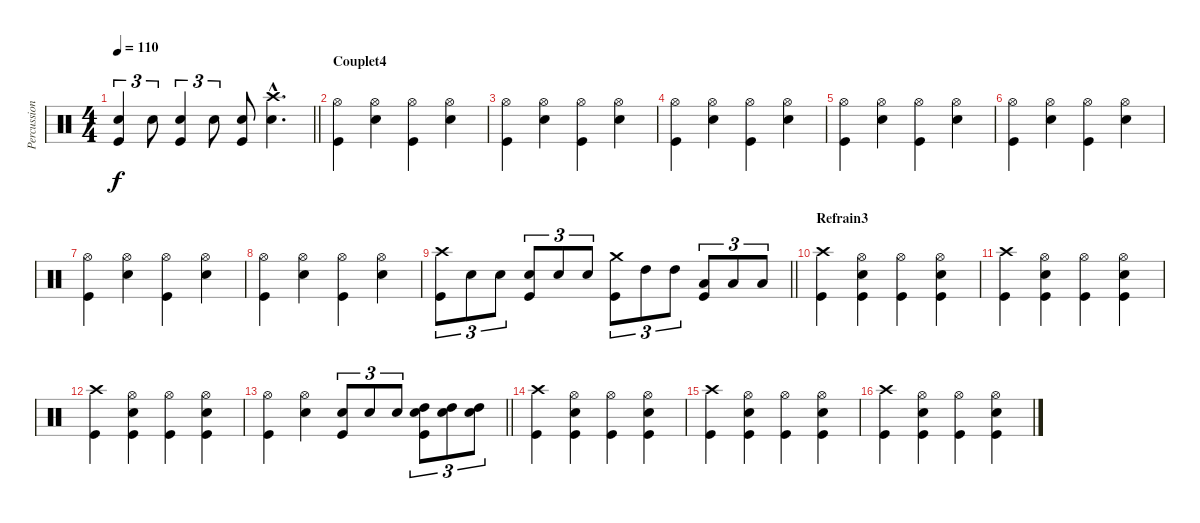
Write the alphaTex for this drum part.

\track ("Percussions" "Percussion") {instrument percussion}
\staff {score}
\articulation defaults
\ts (4 4)
\tempo 110
\clef neutral
\barLineRight lightlight
\ks c
("Snare (hit) 2" "Kick (hit)").4{tu (3 2) dy f} "Snare (hit) 2".8{tu (3 2)} ("Snare (hit) 2" "Kick (hit)").4{tu (3 2)} "Snare (hit) 2".8{tu (3 2)} ("Snare (hit) 2" "Kick (hit)").8 ("Crash high (hit)"{hac} "Snare (hit) 2"{hac}).4{d} |
\section ("" "Couplet4")
("Hi-Hat (open)" "Kick (hit)").4 ("Hi-Hat (open)" "Snare (hit) 2").4 ("Hi-Hat (open)" "Kick (hit)").4 ("Hi-Hat (open)" "Snare (hit) 2").4 |
("Hi-Hat (open)" "Kick (hit)").4 ("Hi-Hat (open)" "Snare (hit) 2").4 ("Hi-Hat (open)" "Kick (hit)").4 ("Hi-Hat (open)" "Snare (hit) 2").4 |
("Hi-Hat (open)" "Kick (hit)").4 ("Hi-Hat (open)" "Snare (hit) 2").4 ("Hi-Hat (open)" "Kick (hit)").4 ("Hi-Hat (open)" "Snare (hit) 2").4 |
("Hi-Hat (open)" "Kick (hit)").4 ("Hi-Hat (open)" "Snare (hit) 2").4 ("Hi-Hat (open)" "Kick (hit)").4 ("Hi-Hat (open)" "Snare (hit) 2").4 |
("Hi-Hat (open)" "Kick (hit)").4 ("Hi-Hat (open)" "Snare (hit) 2").4 ("Hi-Hat (open)" "Kick (hit)").4 ("Hi-Hat (open)" "Snare (hit) 2").4 |
("Hi-Hat (open)" "Kick (hit)").4 ("Hi-Hat (open)" "Snare (hit) 2").4 ("Hi-Hat (open)" "Kick (hit)").4 ("Hi-Hat (open)" "Snare (hit) 2").4 |
("Hi-Hat (open)" "Kick (hit)").4 ("Hi-Hat (open)" "Snare (hit) 2").4 ("Hi-Hat (open)" "Kick (hit)").4 ("Hi-Hat (open)" "Snare (hit) 2").4 |
\barLineRight lightlight
("Crash high (hit)" "Kick (hit)").8{tu (3 2)} "Snare (hit) 2".8{tu (3 2)} "Snare (hit) 2".8{tu (3 2)} ("Snare (hit) 2" "Kick (hit)").8{tu (3 2)} "Snare (hit) 2".8{tu (3 2)} "Snare (hit) 2".8{tu (3 2)} ("Crash medium (hit)" "Kick (hit)").8{tu (3 2)} "High Tom (hit)".8{tu (3 2)} "High Tom (hit)".8{tu (3 2)} ("Low Tom (hit)" "Kick (hit)").8{tu (3 2)} "Low Tom (hit)".8{tu (3 2)} "Low Tom (hit)".8{tu (3 2)} |
\section ("" "Refrain3")
("Crash high (hit)" "Kick (hit)").4 ("Hi-Hat (open)" "Snare (hit) 2" "Kick (hit)").4 ("Hi-Hat (open)" "Kick (hit)").4 ("Hi-Hat (open)" "Snare (hit) 2" "Kick (hit)").4 |
("Crash high (hit)" "Kick (hit)").4 ("Hi-Hat (open)" "Snare (hit) 2" "Kick (hit)").4 ("Hi-Hat (open)" "Kick (hit)").4 ("Hi-Hat (open)" "Snare (hit) 2" "Kick (hit)").4 |
("Crash high (hit)" "Kick (hit)").4 ("Hi-Hat (open)" "Snare (hit) 2" "Kick (hit)").4 ("Hi-Hat (open)" "Kick (hit)").4 ("Hi-Hat (open)" "Snare (hit) 2" "Kick (hit)").4 |
\barLineRight lightlight
("Hi-Hat (open)" "Kick (hit)").4 ("Hi-Hat (open)" "Snare (hit) 2").4 ("Snare (hit) 2" "Kick (hit)").8{tu (3 2)} "Snare (hit) 2".8{tu (3 2)} "Snare (hit) 2".8{tu (3 2)} ("Snare (hit) 2" "High Tom (hit)" "Kick (hit)").8{tu (3 2)} ("Snare (hit) 2" "High Tom (hit)").8{tu (3 2)} ("Snare (hit) 2" "High Tom (hit)").8{tu (3 2)} |
("Crash high (hit)" "Kick (hit)").4 ("Hi-Hat (open)" "Snare (hit) 2" "Kick (hit)").4 ("Hi-Hat (open)" "Kick (hit)").4 ("Hi-Hat (open)" "Snare (hit) 2" "Kick (hit)").4 |
("Crash high (hit)" "Kick (hit)").4 ("Hi-Hat (open)" "Snare (hit) 2" "Kick (hit)").4 ("Hi-Hat (open)" "Kick (hit)").4 ("Hi-Hat (open)" "Snare (hit) 2" "Kick (hit)").4 |
("Crash high (hit)" "Kick (hit)").4 ("Hi-Hat (open)" "Snare (hit) 2" "Kick (hit)").4 ("Hi-Hat (open)" "Kick (hit)").4 ("Hi-Hat (open)" "Snare (hit) 2" "Kick (hit)").4
